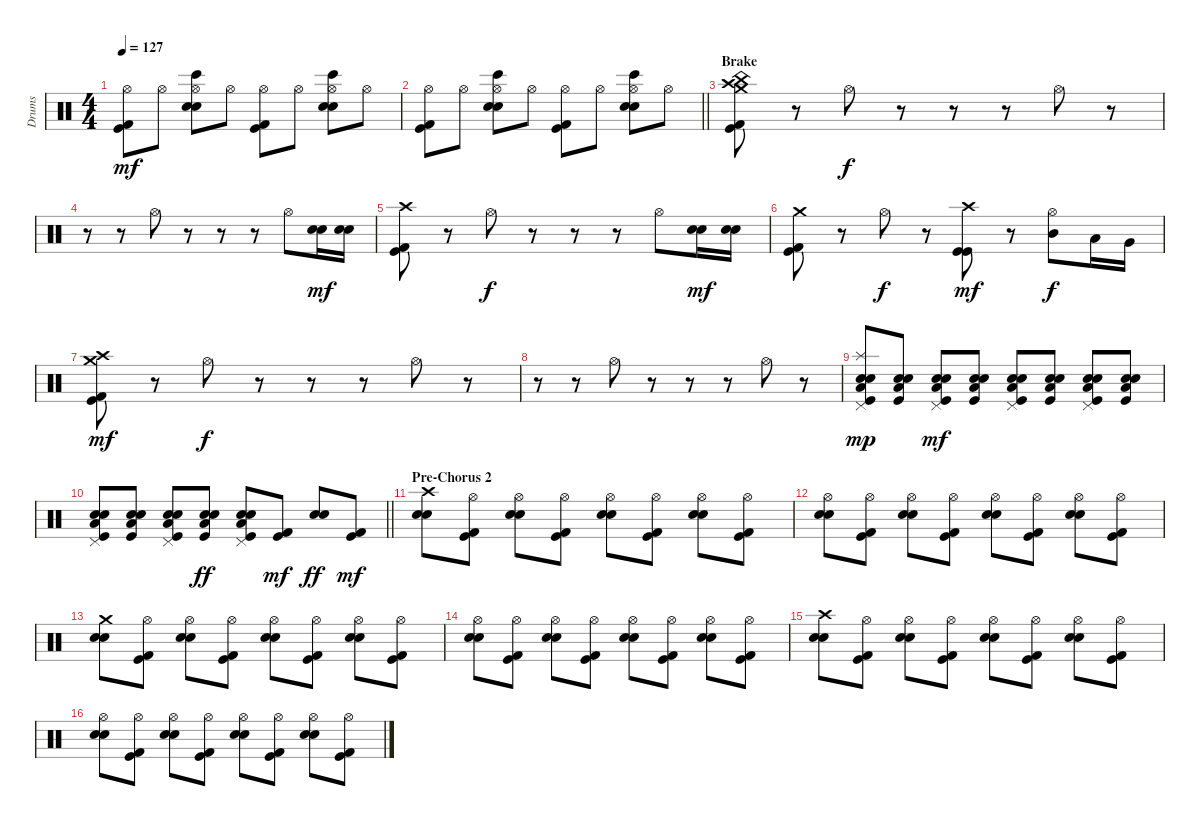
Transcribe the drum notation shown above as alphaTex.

\track ("Drums" "Drums") {instrument percussion}
\staff {score}
\articulation defaults
\ts (4 4)
\tempo 127
\clef neutral
\ks c
("Hi-Hat (open)" "Kick (hit) 2" "Kick (hit)").8{dy mf} "Hi-Hat (open)".8 ("Hi-Hat (open)" "Bongo High (hit)" "Snare (hit) 2" "Electric Snare (hit)").8 "Hi-Hat (open)".8 ("Hi-Hat (open)" "Kick (hit) 2" "Kick (hit)").8 "Hi-Hat (open)".8 ("Hi-Hat (open)" "Bongo High (hit)" "Snare (hit) 2" "Electric Snare (hit)").8 "Hi-Hat (open)".8 |
\barLineRight lightlight
("Hi-Hat (open)" "Kick (hit) 2" "Kick (hit)").8 "Hi-Hat (open)".8 ("Hi-Hat (open)" "Bongo High (hit)" "Snare (hit) 2" "Electric Snare (hit)").8 "Hi-Hat (open)".8 ("Hi-Hat (open)" "Kick (hit) 2" "Kick (hit)").8 "Hi-Hat (open)".8 ("Hi-Hat (open)" "Bongo High (hit)" "Snare (hit) 2" "Electric Snare (hit)").8 "Hi-Hat (open)".8 |
\section ("" "Brake")
("Crash high (hit)" "Crash medium (hit)" "China (hit)" "Kick (hit) 2" "Kick (hit)").8 r.8 "Hi-Hat (open)".8{dy f} r.8 r.8 r.8 "Hi-Hat (open)".8 r.8 |
r.8 r.8 "Hi-Hat (open)".8 r.8 r.8 r.8 "Hi-Hat (open)".8 ("Snare (hit) 2" "Electric Snare (hit)").16{dy mf} ("Snare (hit) 2" "Electric Snare (hit)").16 |
("Crash high (hit)" "Kick (hit) 2" "Kick (hit)").8 r.8 "Hi-Hat (open)".8{dy f} r.8 r.8 r.8 "Hi-Hat (open)".8 ("Snare (hit) 2" "Electric Snare (hit)").16{dy mf} ("Snare (hit) 2" "Electric Snare (hit)").16 |
("Crash medium (hit)" "Kick (hit) 2" "Kick (hit)").8 r.8 "Hi-Hat (open)".8{dy f} r.8 ("Crash high (hit)" "Kick (hit)" "Kick (hit)").8{dy mf} r.8 ("Hi-Hat (open)" "Mid Tom (hit)").8{dy f} "Low Tom (hit)".16 "Very Low Tom (hit)".16 |
("Crash high (hit)" "Crash medium (hit)" "Kick (hit) 2" "Kick (hit)").8{dy mf} r.8 "Hi-Hat (open)".8{dy f} r.8 r.8 r.8 "Hi-Hat (open)".8 r.8 |
r.8 r.8 "Hi-Hat (open)".8 r.8 r.8 r.8 "Hi-Hat (open)".8 r.8 |
("Pedal Hi-Hat (hit)" "Splash (hit)" "Low Floor Tom (hit)" "Snare (hit) 2" "Electric Snare (hit)" "Kick (hit)").8{dy mp} ("Low Floor Tom (hit)" "Snare (hit) 2" "Electric Snare (hit)" "Kick (hit)").8 ("Pedal Hi-Hat (hit)" "Low Floor Tom (hit)" "Snare (hit) 2" "Electric Snare (hit)" "Kick (hit)").8{dy mf} ("Low Floor Tom (hit)" "Snare (hit) 2" "Electric Snare (hit)" "Kick (hit)").8 ("Pedal Hi-Hat (hit)" "Low Floor Tom (hit)" "Snare (hit) 2" "Electric Snare (hit)" "Kick (hit)").8 ("Low Floor Tom (hit)" "Snare (hit) 2" "Electric Snare (hit)" "Kick (hit)").8 ("Pedal Hi-Hat (hit)" "Low Floor Tom (hit)" "Snare (hit) 2" "Electric Snare (hit)" "Kick (hit)").8 ("Low Floor Tom (hit)" "Snare (hit) 2" "Electric Snare (hit)" "Kick (hit)").8 |
\barLineRight lightlight
("Pedal Hi-Hat (hit)" "Low Floor Tom (hit)" "Snare (hit) 2" "Electric Snare (hit)" "Kick (hit)").8 ("Low Floor Tom (hit)" "Snare (hit) 2" "Electric Snare (hit)" "Kick (hit)").8 ("Pedal Hi-Hat (hit)" "Low Floor Tom (hit)" "Snare (hit) 2" "Electric Snare (hit)" "Kick (hit)").8 ("Low Floor Tom (hit)" "Snare (hit) 2" "Electric Snare (hit)" "Kick (hit)").8{dy ff} ("Pedal Hi-Hat (hit)" "Low Floor Tom (hit)" "Snare (hit) 2" "Electric Snare (hit)" "Kick (hit)").8 ("Kick (hit) 2" "Kick (hit)").8{dy mf} ("Snare (hit) 2" "Electric Snare (hit)").8{dy ff} ("Kick (hit) 2" "Kick (hit)").8{dy mf} |
\section ("" "Pre-Chorus 2")
("Crash high (hit)" "Snare (hit) 2" "Electric Snare (hit)").8 ("Hi-Hat (open)" "Kick (hit) 2" "Kick (hit)").8 ("Hi-Hat (open)" "Snare (hit) 2" "Electric Snare (hit)").8 ("Hi-Hat (open)" "Kick (hit) 2" "Kick (hit)").8 ("Hi-Hat (open)" "Snare (hit) 2" "Electric Snare (hit)").8 ("Hi-Hat (open)" "Kick (hit) 2" "Kick (hit)").8 ("Hi-Hat (open)" "Snare (hit) 2" "Electric Snare (hit)").8 ("Hi-Hat (open)" "Kick (hit) 2" "Kick (hit)").8 |
("Hi-Hat (open)" "Snare (hit) 2" "Electric Snare (hit)").8 ("Hi-Hat (open)" "Kick (hit) 2" "Kick (hit)").8 ("Hi-Hat (open)" "Snare (hit) 2" "Electric Snare (hit)").8 ("Hi-Hat (open)" "Kick (hit) 2" "Kick (hit)").8 ("Hi-Hat (open)" "Snare (hit) 2" "Electric Snare (hit)").8 ("Hi-Hat (open)" "Kick (hit) 2" "Kick (hit)").8 ("Hi-Hat (open)" "Snare (hit) 2" "Electric Snare (hit)").8 ("Hi-Hat (open)" "Kick (hit) 2" "Kick (hit)").8 |
("Crash medium (hit)" "Snare (hit) 2" "Electric Snare (hit)").8 ("Hi-Hat (open)" "Kick (hit) 2" "Kick (hit)").8 ("Hi-Hat (open)" "Snare (hit) 2" "Electric Snare (hit)").8 ("Hi-Hat (open)" "Kick (hit) 2" "Kick (hit)").8 ("Hi-Hat (open)" "Snare (hit) 2" "Electric Snare (hit)").8 ("Hi-Hat (open)" "Kick (hit) 2" "Kick (hit)").8 ("Hi-Hat (open)" "Snare (hit) 2" "Electric Snare (hit)").8 ("Hi-Hat (open)" "Kick (hit) 2" "Kick (hit)").8 |
("Hi-Hat (open)" "Snare (hit) 2" "Electric Snare (hit)").8 ("Hi-Hat (open)" "Kick (hit) 2" "Kick (hit)").8 ("Hi-Hat (open)" "Snare (hit) 2" "Electric Snare (hit)").8 ("Hi-Hat (open)" "Kick (hit) 2" "Kick (hit)").8 ("Hi-Hat (open)" "Snare (hit) 2" "Electric Snare (hit)").8 ("Hi-Hat (open)" "Kick (hit) 2" "Kick (hit)").8 ("Hi-Hat (open)" "Snare (hit) 2" "Electric Snare (hit)").8 ("Hi-Hat (open)" "Kick (hit) 2" "Kick (hit)").8 |
("Crash high (hit)" "Snare (hit) 2" "Electric Snare (hit)").8 ("Hi-Hat (open)" "Kick (hit) 2" "Kick (hit)").8 ("Hi-Hat (open)" "Snare (hit) 2" "Electric Snare (hit)").8 ("Hi-Hat (open)" "Kick (hit) 2" "Kick (hit)").8 ("Hi-Hat (open)" "Snare (hit) 2" "Electric Snare (hit)").8 ("Hi-Hat (open)" "Kick (hit) 2" "Kick (hit)").8 ("Hi-Hat (open)" "Snare (hit) 2" "Electric Snare (hit)").8 ("Hi-Hat (open)" "Kick (hit) 2" "Kick (hit)").8 |
("Hi-Hat (open)" "Snare (hit) 2" "Electric Snare (hit)").8 ("Hi-Hat (open)" "Kick (hit) 2" "Kick (hit)").8 ("Hi-Hat (open)" "Snare (hit) 2" "Electric Snare (hit)").8 ("Hi-Hat (open)" "Kick (hit) 2" "Kick (hit)").8 ("Hi-Hat (open)" "Snare (hit) 2" "Electric Snare (hit)").8 ("Hi-Hat (open)" "Kick (hit) 2" "Kick (hit)").8 ("Hi-Hat (open)" "Snare (hit) 2" "Electric Snare (hit)").8 ("Hi-Hat (open)" "Kick (hit) 2" "Kick (hit)").8
